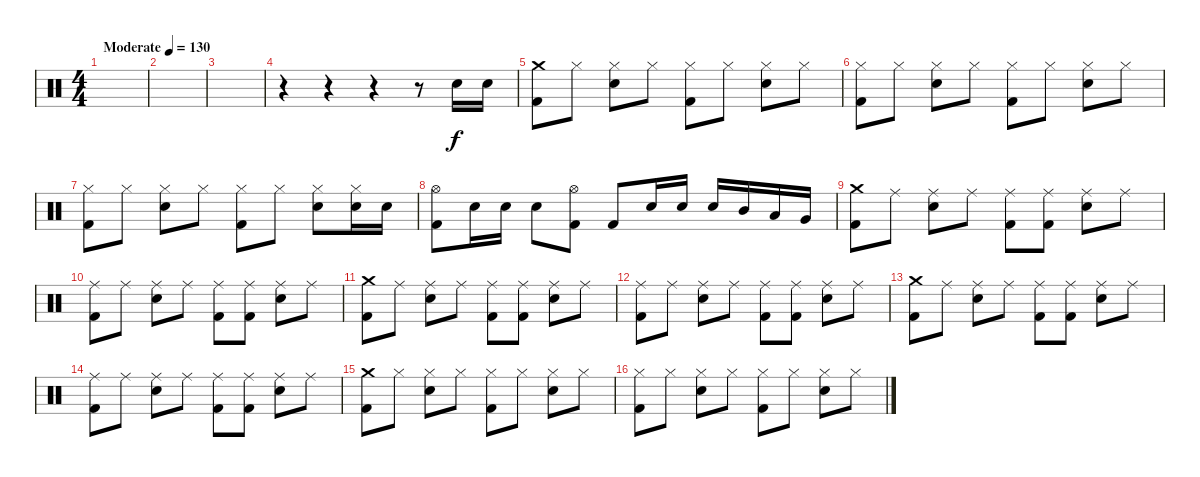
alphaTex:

\track "" {instrument percussion}
\staff {score}
\articulation defaults
\ts (4 4)
\tempo (130 "Moderate")
\clef neutral
\ks c
|
|
|
r.4 r.4 r.4 r.8 "Electric Snare (hit)".16 "Electric Snare (hit)".16 |
("Crash medium (hit)" "Kick (hit) 2").8 "Hi-Hat (closed)".8 ("Hi-Hat (closed)" "Electric Snare (hit)").8 "Hi-Hat (closed)".8 ("Hi-Hat (closed)" "Kick (hit) 2").8 "Hi-Hat (closed)".8 ("Hi-Hat (closed)" "Electric Snare (hit)").8 "Hi-Hat (closed)".8 |
("Hi-Hat (closed)" "Kick (hit) 2").8 "Hi-Hat (closed)".8 ("Hi-Hat (closed)" "Electric Snare (hit)").8 "Hi-Hat (closed)".8 ("Hi-Hat (closed)" "Kick (hit) 2").8 "Hi-Hat (closed)".8 ("Hi-Hat (closed)" "Electric Snare (hit)").8 "Hi-Hat (closed)".8 |
("Hi-Hat (closed)" "Kick (hit) 2").8 "Hi-Hat (closed)".8 ("Hi-Hat (closed)" "Electric Snare (hit)").8 "Hi-Hat (closed)".8 ("Hi-Hat (closed)" "Kick (hit) 2").8 "Hi-Hat (closed)".8 ("Hi-Hat (closed)" "Electric Snare (hit)").8 ("Hi-Hat (closed)" "Electric Snare (hit)").16 "Electric Snare (hit)".16 |
("Hi-Hat (open)" "Kick (hit) 2").8 "Electric Snare (hit)".16 "Electric Snare (hit)".16 "Electric Snare (hit)".8 ("Hi-Hat (open)" "Kick (hit) 2").8 "Kick (hit) 2".8 "Electric Snare (hit)".16 "Electric Snare (hit)".16 "Electric Snare (hit)".16 "Mid Tom (hit)".16 "Low Tom (hit)".16 "Very Low Tom (hit)".16 |
("Crash medium (hit)" "Kick (hit) 2").8 "Ride (middle)".8 ("Ride (middle)" "Electric Snare (hit)").8 "Ride (middle)".8 ("Ride (middle)" "Kick (hit) 2").8 ("Ride (middle)" "Kick (hit) 2").8 ("Ride (middle)" "Electric Snare (hit)").8 "Ride (middle)".8 |
("Ride (middle)" "Kick (hit) 2").8 "Ride (middle)".8 ("Ride (middle)" "Electric Snare (hit)").8 "Ride (middle)".8 ("Ride (middle)" "Kick (hit) 2").8 ("Ride (middle)" "Kick (hit) 2").8 ("Ride (middle)" "Electric Snare (hit)").8 "Ride (middle)".8 |
("Crash medium (hit)" "Kick (hit) 2").8 "Ride (middle)".8 ("Ride (middle)" "Electric Snare (hit)").8 "Ride (middle)".8 ("Ride (middle)" "Kick (hit) 2").8 ("Ride (middle)" "Kick (hit) 2").8 ("Ride (middle)" "Electric Snare (hit)").8 "Ride (middle)".8 |
("Ride (middle)" "Kick (hit) 2").8 "Ride (middle)".8 ("Ride (middle)" "Electric Snare (hit)").8 "Ride (middle)".8 ("Ride (middle)" "Kick (hit) 2").8 ("Ride (middle)" "Kick (hit) 2").8 ("Ride (middle)" "Electric Snare (hit)").8 "Ride (middle)".8 |
("Crash medium (hit)" "Kick (hit) 2").8 "Ride (middle)".8 ("Ride (middle)" "Electric Snare (hit)").8 "Ride (middle)".8 ("Ride (middle)" "Kick (hit) 2").8 ("Ride (middle)" "Kick (hit) 2").8 ("Ride (middle)" "Electric Snare (hit)").8 "Ride (middle)".8 |
("Ride (middle)" "Kick (hit) 2").8 "Ride (middle)".8 ("Ride (middle)" "Electric Snare (hit)").8 "Ride (middle)".8 ("Ride (middle)" "Kick (hit) 2").8 ("Ride (middle)" "Kick (hit) 2").8 ("Ride (middle)" "Electric Snare (hit)").8 "Ride (middle)".8 |
("Crash medium (hit)" "Kick (hit) 2").8 "Hi-Hat (closed)".8 ("Hi-Hat (closed)" "Electric Snare (hit)").8 "Hi-Hat (closed)".8 ("Hi-Hat (closed)" "Kick (hit) 2").8 "Hi-Hat (closed)".8 ("Hi-Hat (closed)" "Electric Snare (hit)").8 "Hi-Hat (closed)".8 |
("Hi-Hat (closed)" "Kick (hit) 2").8 "Hi-Hat (closed)".8 ("Hi-Hat (closed)" "Electric Snare (hit)").8 "Hi-Hat (closed)".8 ("Hi-Hat (closed)" "Kick (hit) 2").8 "Hi-Hat (closed)".8 ("Hi-Hat (closed)" "Electric Snare (hit)").8 "Hi-Hat (closed)".8
